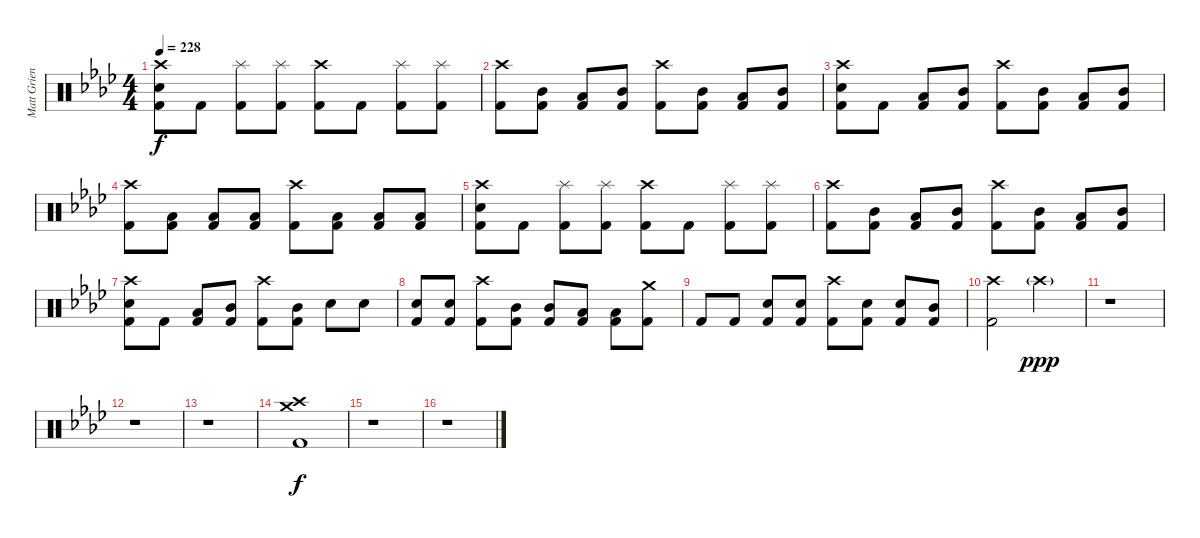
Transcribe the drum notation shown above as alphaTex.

\track ("Matt Griener [Drum Kit]" "Matt Grien") {instrument percussion}
\staff {score}
\articulation defaults
\ts (4 4)
\tempo 228
\clef neutral
\ks fminor
("Crash high (hit)" "Electric Snare (hit)" "Kick (hit) 2").8{dy f} "Kick (hit) 2".8 ("Splash (hit)" "Kick (hit) 2").8 ("Splash (hit)" "Kick (hit) 2").8 ("Crash high (hit)" "Kick (hit) 2").8 "Kick (hit) 2".8 ("Splash (hit)" "Kick (hit) 2").8 ("Splash (hit)" "Kick (hit) 2").8 |
("Crash high (hit)" "Kick (hit) 2").8 ("Mid Tom (hit)" "Kick (hit) 2").8 ("Low Tom (hit)" "Kick (hit) 2").8 ("Mid Tom (hit)" "Kick (hit) 2").8 ("Crash high (hit)" "Kick (hit) 2").8 ("Mid Tom (hit)" "Kick (hit) 2").8 ("Low Tom (hit)" "Kick (hit) 2").8 ("Mid Tom (hit)" "Kick (hit) 2").8 |
("Crash high (hit)" "Electric Snare (hit)" "Kick (hit) 2").8 "Kick (hit) 2".8 ("Low Tom (hit)" "Kick (hit) 2").8 ("Mid Tom (hit)" "Kick (hit) 2").8 ("Crash high (hit)" "Kick (hit) 2").8 ("Mid Tom (hit)" "Kick (hit) 2").8 ("Low Tom (hit)" "Kick (hit) 2").8 ("Mid Tom (hit)" "Kick (hit) 2").8 |
("Crash high (hit)" "Kick (hit) 2").8 ("Low Tom (hit)" "Kick (hit) 2").8 ("Low Floor Tom (hit)" "Kick (hit) 2").8 ("Low Tom (hit)" "Kick (hit) 2").8 ("Crash high (hit)" "Kick (hit) 2").8 ("Low Tom (hit)" "Kick (hit) 2").8 ("Low Floor Tom (hit)" "Kick (hit) 2").8 ("Low Tom (hit)" "Kick (hit) 2").8 |
("Crash high (hit)" "Electric Snare (hit)" "Kick (hit) 2").8 "Kick (hit) 2".8 ("Splash (hit)" "Kick (hit) 2").8 ("Splash (hit)" "Kick (hit) 2").8 ("Crash high (hit)" "Kick (hit) 2").8 "Kick (hit) 2".8 ("Splash (hit)" "Kick (hit) 2").8 ("Splash (hit)" "Kick (hit) 2").8 |
("Crash high (hit)" "Kick (hit) 2").8 ("Mid Tom (hit)" "Kick (hit) 2").8 ("Low Tom (hit)" "Kick (hit) 2").8 ("Mid Tom (hit)" "Kick (hit) 2").8 ("Crash high (hit)" "Kick (hit) 2").8 ("Mid Tom (hit)" "Kick (hit) 2").8 ("Low Tom (hit)" "Kick (hit) 2").8 ("Mid Tom (hit)" "Kick (hit) 2").8 |
("Crash high (hit)" "Electric Snare (hit)" "Kick (hit) 2").8 "Kick (hit) 2".8 ("Low Tom (hit)" "Kick (hit) 2").8 ("Mid Tom (hit)" "Kick (hit) 2").8 ("Crash high (hit)" "Kick (hit) 2").8 ("Mid Tom (hit)" "Kick (hit) 2").8 "Electric Snare (hit)".8 "Electric Snare (hit)".8 |
("Electric Snare (hit)" "Kick (hit) 2").8 ("Electric Snare (hit)" "Kick (hit) 2").8 ("Crash high (hit)" "Kick (hit) 2").8 ("Mid Tom (hit)" "Kick (hit) 2").8 ("Mid Tom (hit)" "Kick (hit) 2").8 ("Low Tom (hit)" "Kick (hit) 2").8 ("Low Floor Tom (hit)" "Kick (hit) 2").8 ("Crash medium (hit)" "Kick (hit) 2").8 |
"Kick (hit) 2".8 "Kick (hit) 2".8 ("Electric Snare (hit)" "Kick (hit) 2").8 ("Electric Snare (hit)" "Kick (hit) 2").8 ("Crash high (hit)" "Kick (hit) 2").8 ("Electric Snare (hit)" "Kick (hit) 2").8 ("Electric Snare (hit)" "Kick (hit) 2").8 ("Mid Tom (hit)" "Kick (hit) 2").8 |
("Crash high (hit)" "Kick (hit) 2").2 "Crash high (hit)"{g}.2{dy ppp} |
r.1 |
r.1 |
r.1 |
("Crash high (hit)" "Crash medium (hit)" "Kick (hit) 2").1{dy f} |
r.1 |
r.1
